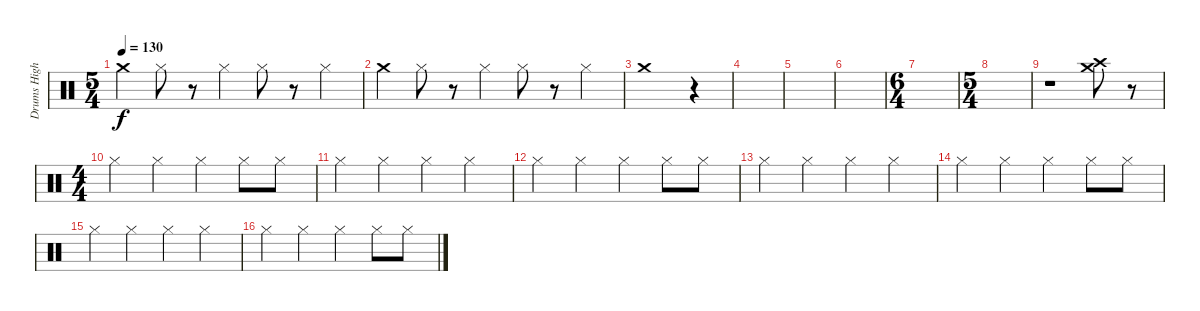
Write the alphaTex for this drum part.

\track ("Drums High" "Drums High") {instrument percussion}
\staff {score}
\articulation defaults
\ts (5 4)
\tempo 130
\clef neutral
\ks c "Crash medium (hit)".4{dy f} "Hi-Hat (closed)".8
r.8 "Hi-Hat (closed)".4 "Hi-Hat (closed)".8 r.8 "Hi-Hat (closed)".4 |
"Crash medium (hit)".4 "Hi-Hat (closed)".8 r.8 "Hi-Hat (closed)".4 "Hi-Hat (closed)".8 r.8 "Hi-Hat (closed)".4 |
"Crash medium (hit)".1 r.4 |
|
|
|
\ts (6 4)
|
\ts (5 4)
|
r.1 ("Crash medium (hit)" "Crash high (hit)").8{volume 8} r.8 |
\ts (4 4)
"Hi-Hat (closed)".4 "Hi-Hat (closed)".4 "Hi-Hat (closed)".4 "Hi-Hat (closed)".8 "Hi-Hat (closed)".8 |
"Hi-Hat (closed)".4 "Hi-Hat (closed)".4 "Hi-Hat (closed)".4 "Hi-Hat (closed)".4 |
"Hi-Hat (closed)".4 "Hi-Hat (closed)".4 "Hi-Hat (closed)".4 "Hi-Hat (closed)".8 "Hi-Hat (closed)".8 |
"Hi-Hat (closed)".4 "Hi-Hat (closed)".4 "Hi-Hat (closed)".4 "Hi-Hat (closed)".4 |
"Hi-Hat (closed)".4 "Hi-Hat (closed)".4 "Hi-Hat (closed)".4 "Hi-Hat (closed)".8 "Hi-Hat (closed)".8 |
"Hi-Hat (closed)".4 "Hi-Hat (closed)".4 "Hi-Hat (closed)".4 "Hi-Hat (closed)".4 |
"Hi-Hat (closed)".4 "Hi-Hat (closed)".4 "Hi-Hat (closed)".4 "Hi-Hat (closed)".8 "Hi-Hat (closed)".8
